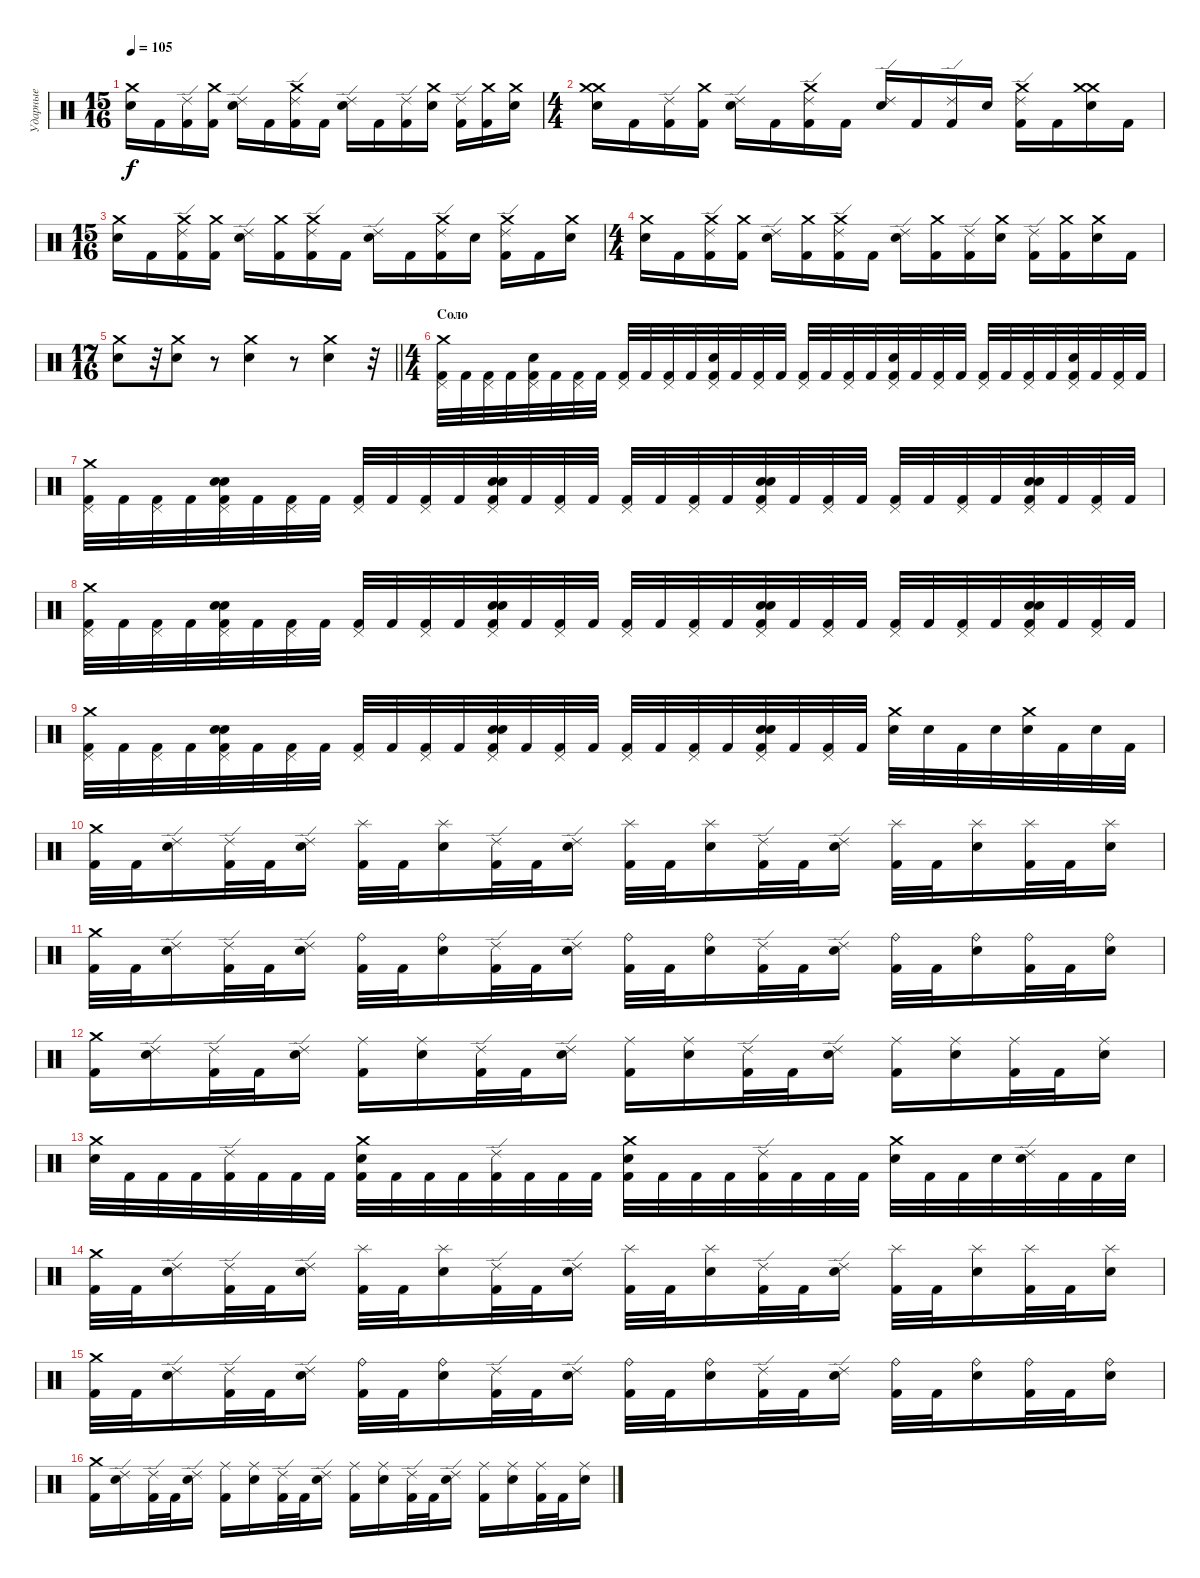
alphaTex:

\track ("Ударные" "Ударные") {instrument percussion}
\staff {score}
\articulation defaults
\ts (15 16)
\tempo 105
\clef neutral
\ks c
("Crash medium (hit)" "Electric Snare (hit)").16{dy f} "Kick (hit) 2".16 ("Ride (edge) 2" "Kick (hit) 2").16 ("Kick (hit) 2" "Crash medium (hit)").16 ("Ride (edge) 2" "Electric Snare (hit)").16 "Kick (hit) 2".16 ("Ride (edge) 2" "Kick (hit) 2" "Crash medium (hit)").16 "Kick (hit) 2".16 ("Ride (edge) 2" "Electric Snare (hit)").16 "Kick (hit) 2".16 ("Ride (edge) 2" "Kick (hit) 2").16 ("Electric Snare (hit)" "Crash medium (hit)").16 ("Ride (edge) 2" "Kick (hit) 2").16 ("Kick (hit) 2" "Crash medium (hit)").16 ("Crash medium (hit)" "Electric Snare (hit)").16 |
\ts (4 4)
("Crash medium (hit)" "Electric Snare (hit)" "Crash medium (hit)").16 "Kick (hit) 2".16 ("Ride (edge) 2" "Kick (hit) 2").16 ("Kick (hit) 2" "Crash medium (hit)").16 ("Ride (edge) 2" "Electric Snare (hit)").16 "Kick (hit) 2".16 ("Ride (edge) 2" "Kick (hit) 2" "Crash medium (hit)").16 "Kick (hit) 2".16 ("Ride (edge) 2" "Electric Snare (hit)").16 "Kick (hit) 2".16 ("Ride (edge) 2" "Kick (hit) 2").16 "Electric Snare (hit)".16 ("Ride (edge) 2" "Kick (hit) 2" "Crash medium (hit)").16 "Kick (hit) 2".16 ("Crash medium (hit)" "Electric Snare (hit)" "Crash medium (hit)").16 "Kick (hit) 2".16 |
\ts (15 16)
("Crash medium (hit)" "Electric Snare (hit)").16 "Kick (hit) 2".16 ("Ride (edge) 2" "Kick (hit) 2" "Crash medium (hit)").16 ("Kick (hit) 2" "Crash medium (hit)").16 ("Ride (edge) 2" "Electric Snare (hit)").16 ("Kick (hit) 2" "Crash medium (hit)").16 ("Ride (edge) 2" "Kick (hit) 2" "Crash medium (hit)").16 "Kick (hit) 2".16 ("Ride (edge) 2" "Electric Snare (hit)").16 "Kick (hit) 2".16 ("Ride (edge) 2" "Kick (hit) 2" "Crash medium (hit)").16 "Electric Snare (hit)".16 ("Ride (edge) 2" "Kick (hit) 2" "Crash medium (hit)").16 "Kick (hit) 2".16 ("Crash medium (hit)" "Electric Snare (hit)").16 |
\ts (4 4)
("Crash medium (hit)" "Electric Snare (hit)").16 "Kick (hit) 2".16 ("Ride (edge) 2" "Kick (hit) 2" "Crash medium (hit)").16 ("Kick (hit) 2" "Crash medium (hit)").16 ("Ride (edge) 2" "Electric Snare (hit)").16 ("Kick (hit) 2" "Crash medium (hit)").16 ("Ride (edge) 2" "Kick (hit) 2" "Crash medium (hit)").16 "Kick (hit) 2".16 ("Ride (edge) 2" "Electric Snare (hit)").16 ("Kick (hit) 2" "Crash medium (hit)").16 ("Ride (edge) 2" "Kick (hit) 2").16 ("Electric Snare (hit)" "Crash medium (hit)").16 ("Ride (edge) 2" "Kick (hit) 2").16 ("Kick (hit) 2" "Crash medium (hit)").16 ("Crash medium (hit)" "Electric Snare (hit)").16 "Kick (hit) 2".16 |
\ts (17 16)
\barLineRight lightlight
("Crash medium (hit)" "Electric Snare (hit)").8 r.32 ("Crash medium (hit)" "Electric Snare (hit)").8 r.8 ("Crash medium (hit)" "Electric Snare (hit)").4 r.8 ("Crash medium (hit)" "Electric Snare (hit)").4 r.32 |
\ts (4 4)
\section ("" "Соло")
("Crash medium (hit)" "Pedal Hi-Hat (hit)" "Kick (hit) 2").32 "Kick (hit) 2".32 ("Pedal Hi-Hat (hit)" "Kick (hit) 2").32 "Kick (hit) 2".32 ("Pedal Hi-Hat (hit)" "Kick (hit) 2" "Electric Snare (hit)").32 "Kick (hit) 2".32 ("Pedal Hi-Hat (hit)" "Kick (hit) 2").32 "Kick (hit) 2".32 ("Kick (hit) 2" "Pedal Hi-Hat (hit)").32 "Kick (hit) 2".32 ("Kick (hit) 2" "Pedal Hi-Hat (hit)").32 "Kick (hit) 2".32 ("Kick (hit) 2" "Electric Snare (hit)" "Pedal Hi-Hat (hit)").32 "Kick (hit) 2".32 ("Kick (hit) 2" "Pedal Hi-Hat (hit)").32 "Kick (hit) 2".32 ("Kick (hit) 2" "Pedal Hi-Hat (hit)").32 "Kick (hit) 2".32 ("Kick (hit) 2" "Pedal Hi-Hat (hit)").32 "Kick (hit) 2".32 ("Kick (hit) 2" "Electric Snare (hit)" "Pedal Hi-Hat (hit)").32 "Kick (hit) 2".32 ("Kick (hit) 2" "Pedal Hi-Hat (hit)").32 "Kick (hit) 2".32 ("Kick (hit) 2" "Pedal Hi-Hat (hit)").32 "Kick (hit) 2".32 ("Kick (hit) 2" "Pedal Hi-Hat (hit)").32 "Kick (hit) 2".32 ("Kick (hit) 2" "Electric Snare (hit)" "Pedal Hi-Hat (hit)").32 "Kick (hit) 2".32 ("Kick (hit) 2" "Pedal Hi-Hat (hit)").32 "Kick (hit) 2".32 |
("Kick (hit) 2" "Crash medium (hit)" "Pedal Hi-Hat (hit)").32 "Kick (hit) 2".32 ("Kick (hit) 2" "Pedal Hi-Hat (hit)").32 "Kick (hit) 2".32 ("Kick (hit) 2" "Electric Snare (hit)" "Pedal Hi-Hat (hit)" "Electric Snare (hit)").32 "Kick (hit) 2".32 ("Kick (hit) 2" "Pedal Hi-Hat (hit)").32 "Kick (hit) 2".32 ("Kick (hit) 2" "Pedal Hi-Hat (hit)").32 "Kick (hit) 2".32 ("Kick (hit) 2" "Pedal Hi-Hat (hit)").32 "Kick (hit) 2".32 ("Kick (hit) 2" "Electric Snare (hit)" "Electric Snare (hit)" "Pedal Hi-Hat (hit)").32 "Kick (hit) 2".32 ("Kick (hit) 2" "Pedal Hi-Hat (hit)").32 "Kick (hit) 2".32 ("Kick (hit) 2" "Pedal Hi-Hat (hit)").32 "Kick (hit) 2".32 ("Kick (hit) 2" "Pedal Hi-Hat (hit)").32 "Kick (hit) 2".32 ("Kick (hit) 2" "Electric Snare (hit)" "Electric Snare (hit)" "Pedal Hi-Hat (hit)").32 "Kick (hit) 2".32 ("Kick (hit) 2" "Pedal Hi-Hat (hit)").32 "Kick (hit) 2".32 ("Kick (hit) 2" "Pedal Hi-Hat (hit)").32 "Kick (hit) 2".32 ("Kick (hit) 2" "Pedal Hi-Hat (hit)").32 "Kick (hit) 2".32 ("Kick (hit) 2" "Electric Snare (hit)" "Electric Snare (hit)" "Pedal Hi-Hat (hit)").32 "Kick (hit) 2".32 ("Kick (hit) 2" "Pedal Hi-Hat (hit)").32 "Kick (hit) 2".32 |
("Crash medium (hit)" "Pedal Hi-Hat (hit)" "Kick (hit) 2").32 "Kick (hit) 2".32 ("Pedal Hi-Hat (hit)" "Kick (hit) 2").32 "Kick (hit) 2".32 ("Pedal Hi-Hat (hit)" "Electric Snare (hit)" "Kick (hit) 2" "Electric Snare (hit)").32 "Kick (hit) 2".32 ("Pedal Hi-Hat (hit)" "Kick (hit) 2").32 "Kick (hit) 2".32 ("Kick (hit) 2" "Pedal Hi-Hat (hit)").32 "Kick (hit) 2".32 ("Kick (hit) 2" "Pedal Hi-Hat (hit)").32 "Kick (hit) 2".32 ("Electric Snare (hit)" "Kick (hit) 2" "Electric Snare (hit)" "Pedal Hi-Hat (hit)").32 "Kick (hit) 2".32 ("Kick (hit) 2" "Pedal Hi-Hat (hit)").32 "Kick (hit) 2".32 ("Kick (hit) 2" "Pedal Hi-Hat (hit)").32 "Kick (hit) 2".32 ("Kick (hit) 2" "Pedal Hi-Hat (hit)").32 "Kick (hit) 2".32 ("Electric Snare (hit)" "Kick (hit) 2" "Electric Snare (hit)" "Pedal Hi-Hat (hit)").32 "Kick (hit) 2".32 ("Kick (hit) 2" "Pedal Hi-Hat (hit)").32 "Kick (hit) 2".32 ("Kick (hit) 2" "Pedal Hi-Hat (hit)").32 "Kick (hit) 2".32 ("Kick (hit) 2" "Pedal Hi-Hat (hit)").32 "Kick (hit) 2".32 ("Electric Snare (hit)" "Kick (hit) 2" "Electric Snare (hit)" "Pedal Hi-Hat (hit)").32 "Kick (hit) 2".32 ("Kick (hit) 2" "Pedal Hi-Hat (hit)").32 "Kick (hit) 2".32 |
("Kick (hit) 2" "Crash medium (hit)" "Pedal Hi-Hat (hit)").32 "Kick (hit) 2".32 ("Kick (hit) 2" "Pedal Hi-Hat (hit)").32 "Kick (hit) 2".32 ("Kick (hit) 2" "Electric Snare (hit)" "Pedal Hi-Hat (hit)" "Electric Snare (hit)").32 "Kick (hit) 2".32 ("Kick (hit) 2" "Pedal Hi-Hat (hit)").32 "Kick (hit) 2".32 ("Kick (hit) 2" "Pedal Hi-Hat (hit)").32 "Kick (hit) 2".32 ("Kick (hit) 2" "Pedal Hi-Hat (hit)").32 "Kick (hit) 2".32 ("Kick (hit) 2" "Electric Snare (hit)" "Electric Snare (hit)" "Pedal Hi-Hat (hit)").32 "Kick (hit) 2".32 ("Kick (hit) 2" "Pedal Hi-Hat (hit)").32 "Kick (hit) 2".32 ("Kick (hit) 2" "Pedal Hi-Hat (hit)").32 "Kick (hit) 2".32 ("Kick (hit) 2" "Pedal Hi-Hat (hit)").32 "Kick (hit) 2".32 ("Kick (hit) 2" "Electric Snare (hit)" "Electric Snare (hit)" "Pedal Hi-Hat (hit)").32 "Kick (hit) 2".32 ("Kick (hit) 2" "Pedal Hi-Hat (hit)").32 "Kick (hit) 2".32 ("Crash medium (hit)" "Electric Snare (hit)").32 "Electric Snare (hit)".32 "Kick (hit) 2".32 "Electric Snare (hit)".32 ("Crash medium (hit)" "Electric Snare (hit)").32 "Kick (hit) 2".32 "Electric Snare (hit)".32 "Kick (hit) 2".32 |
("Crash medium (hit)" "Kick (hit) 2").32 "Kick (hit) 2".32 ("Ride (edge) 2" "Electric Snare (hit)").16 ("Ride (edge) 2" "Kick (hit) 2").32 "Kick (hit) 2".32 ("Ride (edge) 2" "Electric Snare (hit)").16 ("Splash (hit)" "Kick (hit) 2").32 "Kick (hit) 2".32 ("Splash (hit)" "Electric Snare (hit)").16 ("Ride (edge) 2" "Kick (hit) 2").32 "Kick (hit) 2".32 ("Ride (edge) 2" "Electric Snare (hit)").16 ("Splash (hit)" "Kick (hit) 2").32 "Kick (hit) 2".32 ("Splash (hit)" "Electric Snare (hit)").16 ("Ride (edge) 2" "Kick (hit) 2").32 "Kick (hit) 2".32 ("Ride (edge) 2" "Electric Snare (hit)").16 ("Splash (hit)" "Kick (hit) 2").32 "Kick (hit) 2".32 ("Splash (hit)" "Electric Snare (hit)").16 ("Splash (hit)" "Kick (hit) 2").32 "Kick (hit) 2".32 ("Splash (hit)" "Electric Snare (hit)").16 |
("Crash medium (hit)" "Kick (hit) 2").32 "Kick (hit) 2".32 ("Ride (edge) 2" "Electric Snare (hit)").16 ("Ride (edge) 2" "Kick (hit) 2").32 "Kick (hit) 2".32 ("Ride (edge) 2" "Electric Snare (hit)").16 ("Ride (bell)" "Kick (hit) 2").32 "Kick (hit) 2".32 ("Ride (bell)" "Electric Snare (hit)").16 ("Ride (edge) 2" "Kick (hit) 2").32 "Kick (hit) 2".32 ("Ride (edge) 2" "Electric Snare (hit)").16 ("Ride (bell)" "Kick (hit) 2").32 "Kick (hit) 2".32 ("Ride (bell)" "Electric Snare (hit)").16 ("Ride (edge) 2" "Kick (hit) 2").32 "Kick (hit) 2".32 ("Ride (edge) 2" "Electric Snare (hit)").16 ("Ride (bell)" "Kick (hit) 2").32 "Kick (hit) 2".32 ("Ride (bell)" "Electric Snare (hit)").16 ("Ride (bell)" "Kick (hit) 2").32 "Kick (hit) 2".32 ("Ride (bell)" "Electric Snare (hit)").16 |
("Crash medium (hit)" "Kick (hit) 2").16 ("Ride (edge) 2" "Electric Snare (hit)").16 ("Ride (edge) 2" "Kick (hit) 2").32 "Kick (hit) 2".32 ("Ride (edge) 2" "Electric Snare (hit)").16 ("Ride (middle)" "Kick (hit) 2").16 ("Ride (middle)" "Electric Snare (hit)").16 ("Ride (edge) 2" "Kick (hit) 2").32 "Kick (hit) 2".32 ("Ride (edge) 2" "Electric Snare (hit)").16 ("Ride (middle)" "Kick (hit) 2").16 ("Ride (middle)" "Electric Snare (hit)").16 ("Ride (edge) 2" "Kick (hit) 2").32 "Kick (hit) 2".32 ("Ride (edge) 2" "Electric Snare (hit)").16 ("Ride (middle)" "Kick (hit) 2").16 ("Ride (middle)" "Electric Snare (hit)").16 ("Ride (middle)" "Kick (hit) 2").32 "Kick (hit) 2".32 ("Ride (middle)" "Electric Snare (hit)").16 |
("Crash medium (hit)" "Electric Snare (hit)").32 "Kick (hit) 2".32 "Kick (hit) 2".32 "Kick (hit) 2".32 ("Ride (edge) 2" "Kick (hit) 2").32 "Kick (hit) 2".32 "Kick (hit) 2".32 "Kick (hit) 2".32 ("Crash medium (hit)" "Kick (hit) 2" "Electric Snare (hit)").32 "Kick (hit) 2".32 "Kick (hit) 2".32 "Kick (hit) 2".32 ("Ride (edge) 2" "Kick (hit) 2").32 "Kick (hit) 2".32 "Kick (hit) 2".32 "Kick (hit) 2".32 ("Crash medium (hit)" "Kick (hit) 2" "Electric Snare (hit)").32 "Kick (hit) 2".32 "Kick (hit) 2".32 "Kick (hit) 2".32 ("Ride (edge) 2" "Kick (hit) 2").32 "Kick (hit) 2".32 "Kick (hit) 2".32 "Kick (hit) 2".32 ("Crash medium (hit)" "Electric Snare (hit)").32 "Kick (hit) 2".32 "Kick (hit) 2".32 "Electric Snare (hit)".32 ("Ride (edge) 2" "Electric Snare (hit)").32 "Kick (hit) 2".32 "Kick (hit) 2".32 "Electric Snare (hit)".32 |
("Crash medium (hit)" "Kick (hit) 2").32 "Kick (hit) 2".32 ("Ride (edge) 2" "Electric Snare (hit)").16 ("Ride (edge) 2" "Kick (hit) 2").32 "Kick (hit) 2".32 ("Ride (edge) 2" "Electric Snare (hit)").16 ("Splash (hit)" "Kick (hit) 2").32 "Kick (hit) 2".32 ("Splash (hit)" "Electric Snare (hit)").16 ("Ride (edge) 2" "Kick (hit) 2").32 "Kick (hit) 2".32 ("Ride (edge) 2" "Electric Snare (hit)").16 ("Splash (hit)" "Kick (hit) 2").32 "Kick (hit) 2".32 ("Splash (hit)" "Electric Snare (hit)").16 ("Ride (edge) 2" "Kick (hit) 2").32 "Kick (hit) 2".32 ("Ride (edge) 2" "Electric Snare (hit)").16 ("Splash (hit)" "Kick (hit) 2").32 "Kick (hit) 2".32 ("Splash (hit)" "Electric Snare (hit)").16 ("Splash (hit)" "Kick (hit) 2").32 "Kick (hit) 2".32 ("Splash (hit)" "Electric Snare (hit)").16 |
("Crash medium (hit)" "Kick (hit) 2").32 "Kick (hit) 2".32 ("Ride (edge) 2" "Electric Snare (hit)").16 ("Ride (edge) 2" "Kick (hit) 2").32 "Kick (hit) 2".32 ("Ride (edge) 2" "Electric Snare (hit)").16 ("Ride (bell)" "Kick (hit) 2").32 "Kick (hit) 2".32 ("Ride (bell)" "Electric Snare (hit)").16 ("Ride (edge) 2" "Kick (hit) 2").32 "Kick (hit) 2".32 ("Ride (edge) 2" "Electric Snare (hit)").16 ("Ride (bell)" "Kick (hit) 2").32 "Kick (hit) 2".32 ("Ride (bell)" "Electric Snare (hit)").16 ("Ride (edge) 2" "Kick (hit) 2").32 "Kick (hit) 2".32 ("Ride (edge) 2" "Electric Snare (hit)").16 ("Ride (bell)" "Kick (hit) 2").32 "Kick (hit) 2".32 ("Ride (bell)" "Electric Snare (hit)").16 ("Ride (bell)" "Kick (hit) 2").32 "Kick (hit) 2".32 ("Ride (bell)" "Electric Snare (hit)").16 |
("Crash medium (hit)" "Kick (hit) 2").16 ("Ride (edge) 2" "Electric Snare (hit)").16 ("Ride (edge) 2" "Kick (hit) 2").32 "Kick (hit) 2".32 ("Ride (edge) 2" "Electric Snare (hit)").16 ("Ride (middle)" "Kick (hit) 2").16 ("Ride (middle)" "Electric Snare (hit)").16 ("Ride (edge) 2" "Kick (hit) 2").32 "Kick (hit) 2".32 ("Ride (edge) 2" "Electric Snare (hit)").16 ("Ride (middle)" "Kick (hit) 2").16 ("Ride (middle)" "Electric Snare (hit)").16 ("Ride (edge) 2" "Kick (hit) 2").32 "Kick (hit) 2".32 ("Ride (edge) 2" "Electric Snare (hit)").16 ("Ride (middle)" "Kick (hit) 2").16 ("Ride (middle)" "Electric Snare (hit)").16 ("Ride (middle)" "Kick (hit) 2").32 "Kick (hit) 2".32 ("Ride (middle)" "Electric Snare (hit)").16
